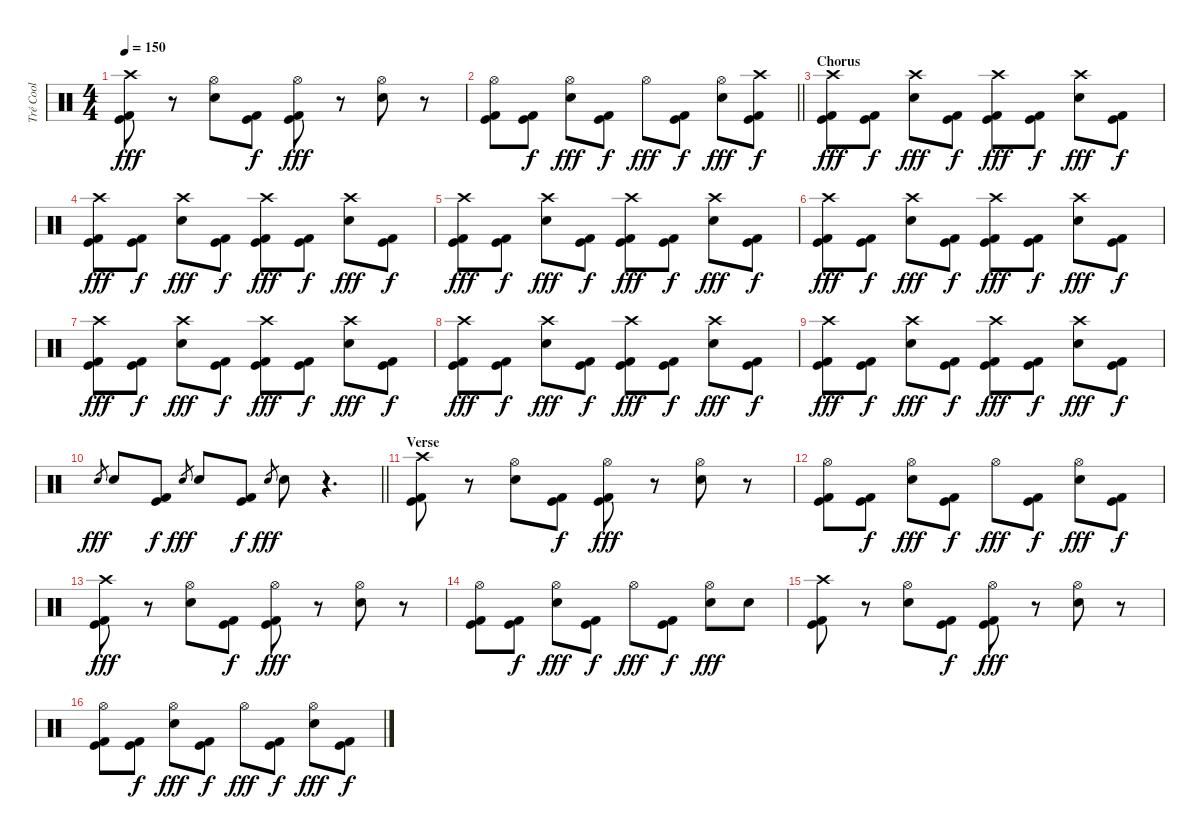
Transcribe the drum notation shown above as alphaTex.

\track ("Tré Cool" "Tré Cool") {instrument percussion}
\staff {score}
\articulation defaults
\ts (4 4)
\tempo 150
\clef neutral
\ks c
("Crash high (hit)" "Kick (hit)" "Kick (hit) 2").8{dy fff} r.8 ("Hi-Hat (open)" "Snare (hit) 2").8 ("Kick (hit)" "Kick (hit) 2").8{dy f} ("Hi-Hat (open)" "Kick (hit)" "Kick (hit) 2").8{dy fff} r.8 ("Hi-Hat (open)" "Snare (hit) 2").8 r.8 |
\barLineRight lightlight
("Hi-Hat (open)" "Kick (hit)" "Kick (hit) 2").8 ("Kick (hit)" "Kick (hit) 2").8{dy f} ("Hi-Hat (open)" "Snare (hit) 2").8{dy fff} ("Kick (hit)" "Kick (hit) 2").8{dy f} "Hi-Hat (open)".8{dy fff} ("Kick (hit)" "Kick (hit) 2").8{dy f} ("Hi-Hat (open)" "Snare (hit) 2").8{dy fff} ("Crash high (hit)" "Kick (hit)" "Kick (hit) 2").8{dy f} |
\section ("" "Chorus")
("Crash high (hit)" "Kick (hit)" "Kick (hit) 2").8{dy fff} ("Kick (hit)" "Kick (hit) 2").8{dy f} ("Crash high (hit)" "Snare (hit) 2").8{dy fff} ("Kick (hit)" "Kick (hit) 2").8{dy f} ("Crash high (hit)" "Kick (hit)" "Kick (hit) 2").8{dy fff} ("Kick (hit)" "Kick (hit) 2").8{dy f} ("Crash high (hit)" "Snare (hit) 2").8{dy fff} ("Kick (hit)" "Kick (hit) 2").8{dy f} |
("Crash high (hit)" "Kick (hit)" "Kick (hit) 2").8{dy fff} ("Kick (hit)" "Kick (hit) 2").8{dy f} ("Crash high (hit)" "Snare (hit) 2").8{dy fff} ("Kick (hit)" "Kick (hit) 2").8{dy f} ("Crash high (hit)" "Kick (hit)" "Kick (hit) 2").8{dy fff} ("Kick (hit)" "Kick (hit) 2").8{dy f} ("Crash high (hit)" "Snare (hit) 2").8{dy fff} ("Kick (hit)" "Kick (hit) 2").8{dy f} |
("Crash high (hit)" "Kick (hit)" "Kick (hit) 2").8{dy fff} ("Kick (hit)" "Kick (hit) 2").8{dy f} ("Crash high (hit)" "Snare (hit) 2").8{dy fff} ("Kick (hit)" "Kick (hit) 2").8{dy f} ("Crash high (hit)" "Kick (hit)" "Kick (hit) 2").8{dy fff} ("Kick (hit)" "Kick (hit) 2").8{dy f} ("Crash high (hit)" "Snare (hit) 2").8{dy fff} ("Kick (hit)" "Kick (hit) 2").8{dy f} |
("Crash high (hit)" "Kick (hit)" "Kick (hit) 2").8{dy fff} ("Kick (hit)" "Kick (hit) 2").8{dy f} ("Crash high (hit)" "Snare (hit) 2").8{dy fff} ("Kick (hit)" "Kick (hit) 2").8{dy f} ("Crash high (hit)" "Kick (hit)" "Kick (hit) 2").8{dy fff} ("Kick (hit)" "Kick (hit) 2").8{dy f} ("Crash high (hit)" "Snare (hit) 2").8{dy fff} ("Kick (hit)" "Kick (hit) 2").8{dy f} |
("Crash high (hit)" "Kick (hit)" "Kick (hit) 2").8{dy fff} ("Kick (hit)" "Kick (hit) 2").8{dy f} ("Crash high (hit)" "Snare (hit) 2").8{dy fff} ("Kick (hit)" "Kick (hit) 2").8{dy f} ("Crash high (hit)" "Kick (hit)" "Kick (hit) 2").8{dy fff} ("Kick (hit)" "Kick (hit) 2").8{dy f} ("Crash high (hit)" "Snare (hit) 2").8{dy fff} ("Kick (hit)" "Kick (hit) 2").8{dy f} |
("Crash high (hit)" "Kick (hit)" "Kick (hit) 2").8{dy fff} ("Kick (hit)" "Kick (hit) 2").8{dy f} ("Crash high (hit)" "Snare (hit) 2").8{dy fff} ("Kick (hit)" "Kick (hit) 2").8{dy f} ("Crash high (hit)" "Kick (hit)" "Kick (hit) 2").8{dy fff} ("Kick (hit)" "Kick (hit) 2").8{dy f} ("Crash high (hit)" "Snare (hit) 2").8{dy fff} ("Kick (hit)" "Kick (hit) 2").8{dy f} |
("Crash high (hit)" "Kick (hit)" "Kick (hit) 2").8{dy fff} ("Kick (hit)" "Kick (hit) 2").8{dy f} ("Crash high (hit)" "Snare (hit) 2").8{dy fff} ("Kick (hit)" "Kick (hit) 2").8{dy f} ("Crash high (hit)" "Kick (hit)" "Kick (hit) 2").8{dy fff} ("Kick (hit)" "Kick (hit) 2").8{dy f} ("Crash high (hit)" "Snare (hit) 2").8{dy fff} ("Kick (hit)" "Kick (hit) 2").8{dy f} |
\barLineRight lightlight "Snare (hit) 2".8{gr dy fff} "Snare (hit) 2".8
("Kick (hit)" "Kick (hit) 2").8{dy f} "Snare (hit) 2".8{gr dy fff} "Snare (hit) 2".8 ("Kick (hit)" "Kick (hit) 2").8{dy f} "Snare (hit) 2".8{gr dy fff} "Snare (hit) 2".8 r.4{d} |
\section ("" "Verse")
("Crash high (hit)" "Kick (hit)" "Kick (hit) 2").8 r.8 ("Hi-Hat (open)" "Snare (hit) 2").8 ("Kick (hit)" "Kick (hit) 2").8{dy f} ("Hi-Hat (open)" "Kick (hit)" "Kick (hit) 2").8{dy fff} r.8 ("Hi-Hat (open)" "Snare (hit) 2").8 r.8 |
("Hi-Hat (open)" "Kick (hit)" "Kick (hit) 2").8 ("Kick (hit)" "Kick (hit) 2").8{dy f} ("Hi-Hat (open)" "Snare (hit) 2").8{dy fff} ("Kick (hit)" "Kick (hit) 2").8{dy f} "Hi-Hat (open)".8{dy fff} ("Kick (hit)" "Kick (hit) 2").8{dy f} ("Hi-Hat (open)" "Snare (hit) 2").8{dy fff} ("Kick (hit)" "Kick (hit) 2").8{dy f} |
("Crash high (hit)" "Kick (hit)" "Kick (hit) 2").8{dy fff} r.8 ("Hi-Hat (open)" "Snare (hit) 2").8 ("Kick (hit)" "Kick (hit) 2").8{dy f} ("Hi-Hat (open)" "Kick (hit)" "Kick (hit) 2").8{dy fff} r.8 ("Hi-Hat (open)" "Snare (hit) 2").8 r.8 |
("Hi-Hat (open)" "Kick (hit)" "Kick (hit) 2").8 ("Kick (hit)" "Kick (hit) 2").8{dy f} ("Hi-Hat (open)" "Snare (hit) 2").8{dy fff} ("Kick (hit)" "Kick (hit) 2").8{dy f} "Hi-Hat (open)".8{dy fff} ("Kick (hit)" "Kick (hit) 2").8{dy f} ("Hi-Hat (open)" "Snare (hit) 2").8{dy fff} "Snare (hit) 2".8 |
("Crash high (hit)" "Kick (hit)" "Kick (hit) 2").8 r.8 ("Hi-Hat (open)" "Snare (hit) 2").8 ("Kick (hit)" "Kick (hit) 2").8{dy f} ("Hi-Hat (open)" "Kick (hit)" "Kick (hit) 2").8{dy fff} r.8 ("Hi-Hat (open)" "Snare (hit) 2").8 r.8 |
("Hi-Hat (open)" "Kick (hit)" "Kick (hit) 2").8 ("Kick (hit)" "Kick (hit) 2").8{dy f} ("Hi-Hat (open)" "Snare (hit) 2").8{dy fff} ("Kick (hit)" "Kick (hit) 2").8{dy f} "Hi-Hat (open)".8{dy fff} ("Kick (hit)" "Kick (hit) 2").8{dy f} ("Hi-Hat (open)" "Snare (hit) 2").8{dy fff} ("Kick (hit)" "Kick (hit) 2").8{dy f}
